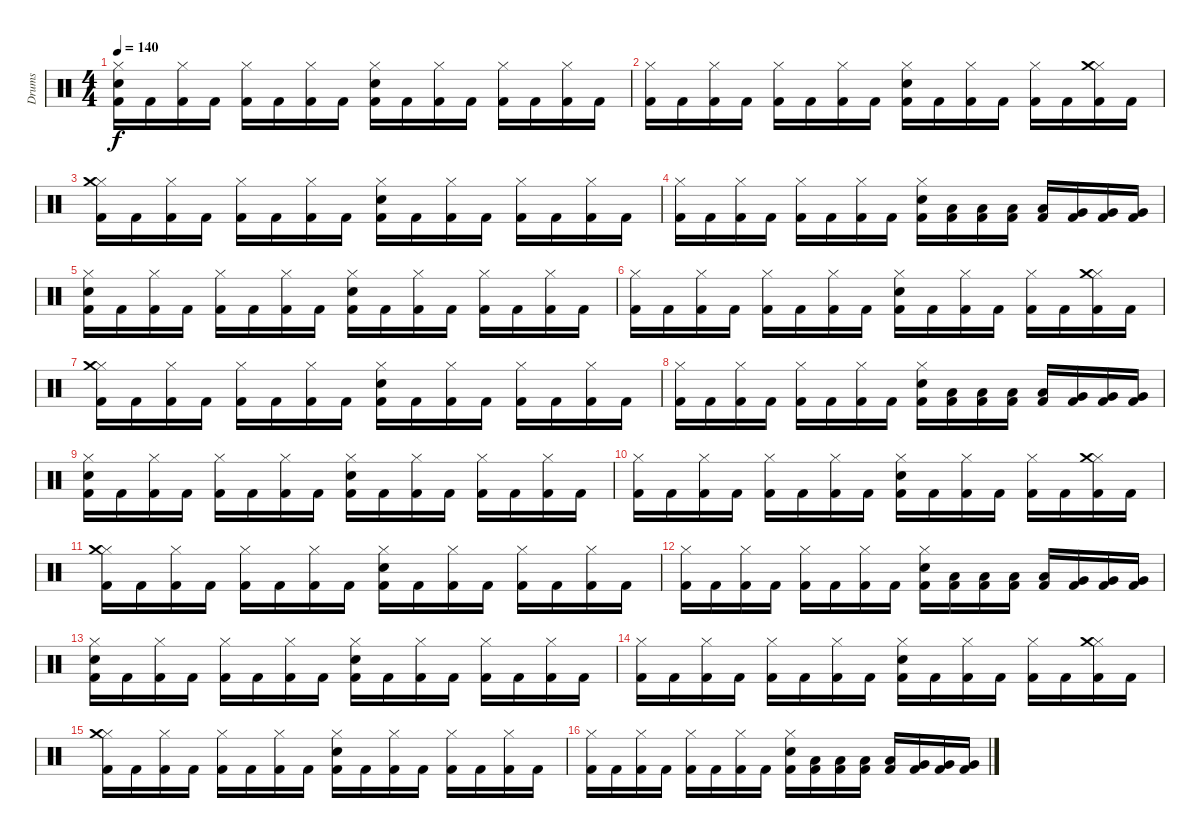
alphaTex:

\track ("Drums" "Drums") {instrument percussion}
\staff {score}
\articulation defaults
\ts (4 4)
\tempo 140
\clef neutral
\ks c
("Hi-Hat (closed)" "Snare (hit) 2" "Kick (hit) 2").16{dy f} "Kick (hit) 2".16 ("Hi-Hat (closed)" "Kick (hit) 2").16 "Kick (hit) 2".16 ("Hi-Hat (closed)" "Kick (hit) 2").16 "Kick (hit) 2".16 ("Hi-Hat (closed)" "Kick (hit) 2").16 "Kick (hit) 2".16 ("Hi-Hat (closed)" "Snare (hit) 2" "Kick (hit) 2").16 "Kick (hit) 2".16 ("Hi-Hat (closed)" "Kick (hit) 2").16 "Kick (hit) 2".16 ("Hi-Hat (closed)" "Kick (hit) 2").16 "Kick (hit) 2".16 ("Hi-Hat (closed)" "Kick (hit) 2").16 "Kick (hit) 2".16 |
("Hi-Hat (closed)" "Kick (hit) 2").16 "Kick (hit) 2".16 ("Hi-Hat (closed)" "Kick (hit) 2").16 "Kick (hit) 2".16 ("Hi-Hat (closed)" "Kick (hit) 2").16 "Kick (hit) 2".16 ("Hi-Hat (closed)" "Kick (hit) 2").16 "Kick (hit) 2".16 ("Hi-Hat (closed)" "Snare (hit) 2" "Kick (hit) 2").16 "Kick (hit) 2".16 ("Hi-Hat (closed)" "Kick (hit) 2").16 "Kick (hit) 2".16 ("Hi-Hat (closed)" "Kick (hit) 2").16 "Kick (hit) 2".16 ("Hi-Hat (closed)" "Crash medium (hit)" "Kick (hit) 2").16 "Kick (hit) 2".16 |
("Hi-Hat (closed)" "Crash medium (hit)" "Kick (hit) 2").16 "Kick (hit) 2".16 ("Hi-Hat (closed)" "Kick (hit) 2").16 "Kick (hit) 2".16 ("Hi-Hat (closed)" "Kick (hit) 2").16 "Kick (hit) 2".16 ("Hi-Hat (closed)" "Kick (hit) 2").16 "Kick (hit) 2".16 ("Hi-Hat (closed)" "Snare (hit) 2" "Kick (hit) 2").16 "Kick (hit) 2".16 ("Hi-Hat (closed)" "Kick (hit) 2").16 "Kick (hit) 2".16 ("Hi-Hat (closed)" "Kick (hit) 2").16 "Kick (hit) 2".16 ("Hi-Hat (closed)" "Kick (hit) 2").16 "Kick (hit) 2".16 |
("Hi-Hat (closed)" "Kick (hit) 2").16 "Kick (hit) 2".16 ("Hi-Hat (closed)" "Kick (hit) 2").16 "Kick (hit) 2".16 ("Hi-Hat (closed)" "Kick (hit) 2").16 "Kick (hit) 2".16 ("Hi-Hat (closed)" "Kick (hit) 2").16 "Kick (hit) 2".16 ("Hi-Hat (closed)" "Snare (hit) 2" "Kick (hit) 2").16 ("Low Floor Tom (hit)" "Kick (hit) 2").16 ("Low Floor Tom (hit)" "Kick (hit) 2").16 ("Low Floor Tom (hit)" "Kick (hit) 2").16 ("Low Floor Tom (hit)" "Kick (hit) 2").16 ("Very Low Tom (hit)" "Kick (hit) 2").16 ("Very Low Tom (hit)" "Kick (hit) 2").16 ("Very Low Tom (hit)" "Kick (hit) 2").16 |
("Hi-Hat (closed)" "Snare (hit) 2" "Kick (hit) 2").16 "Kick (hit) 2".16 ("Hi-Hat (closed)" "Kick (hit) 2").16 "Kick (hit) 2".16 ("Hi-Hat (closed)" "Kick (hit) 2").16 "Kick (hit) 2".16 ("Hi-Hat (closed)" "Kick (hit) 2").16 "Kick (hit) 2".16 ("Hi-Hat (closed)" "Snare (hit) 2" "Kick (hit) 2").16 "Kick (hit) 2".16 ("Hi-Hat (closed)" "Kick (hit) 2").16 "Kick (hit) 2".16 ("Hi-Hat (closed)" "Kick (hit) 2").16 "Kick (hit) 2".16 ("Hi-Hat (closed)" "Kick (hit) 2").16 "Kick (hit) 2".16 |
("Hi-Hat (closed)" "Kick (hit) 2").16 "Kick (hit) 2".16 ("Hi-Hat (closed)" "Kick (hit) 2").16 "Kick (hit) 2".16 ("Hi-Hat (closed)" "Kick (hit) 2").16 "Kick (hit) 2".16 ("Hi-Hat (closed)" "Kick (hit) 2").16 "Kick (hit) 2".16 ("Hi-Hat (closed)" "Snare (hit) 2" "Kick (hit) 2").16 "Kick (hit) 2".16 ("Hi-Hat (closed)" "Kick (hit) 2").16 "Kick (hit) 2".16 ("Hi-Hat (closed)" "Kick (hit) 2").16 "Kick (hit) 2".16 ("Hi-Hat (closed)" "Crash medium (hit)" "Kick (hit) 2").16 "Kick (hit) 2".16 |
("Hi-Hat (closed)" "Crash medium (hit)" "Kick (hit) 2").16 "Kick (hit) 2".16 ("Hi-Hat (closed)" "Kick (hit) 2").16 "Kick (hit) 2".16 ("Hi-Hat (closed)" "Kick (hit) 2").16 "Kick (hit) 2".16 ("Hi-Hat (closed)" "Kick (hit) 2").16 "Kick (hit) 2".16 ("Hi-Hat (closed)" "Snare (hit) 2" "Kick (hit) 2").16 "Kick (hit) 2".16 ("Hi-Hat (closed)" "Kick (hit) 2").16 "Kick (hit) 2".16 ("Hi-Hat (closed)" "Kick (hit) 2").16 "Kick (hit) 2".16 ("Hi-Hat (closed)" "Kick (hit) 2").16 "Kick (hit) 2".16 |
("Hi-Hat (closed)" "Kick (hit) 2").16 "Kick (hit) 2".16 ("Hi-Hat (closed)" "Kick (hit) 2").16 "Kick (hit) 2".16 ("Hi-Hat (closed)" "Kick (hit) 2").16 "Kick (hit) 2".16 ("Hi-Hat (closed)" "Kick (hit) 2").16 "Kick (hit) 2".16 ("Hi-Hat (closed)" "Snare (hit) 2" "Kick (hit) 2").16 ("Low Floor Tom (hit)" "Kick (hit) 2").16 ("Low Floor Tom (hit)" "Kick (hit) 2").16 ("Low Floor Tom (hit)" "Kick (hit) 2").16 ("Low Floor Tom (hit)" "Kick (hit) 2").16 ("Very Low Tom (hit)" "Kick (hit) 2").16 ("Very Low Tom (hit)" "Kick (hit) 2").16 ("Very Low Tom (hit)" "Kick (hit) 2").16 |
("Hi-Hat (closed)" "Snare (hit) 2" "Kick (hit) 2").16 "Kick (hit) 2".16 ("Hi-Hat (closed)" "Kick (hit) 2").16 "Kick (hit) 2".16 ("Hi-Hat (closed)" "Kick (hit) 2").16 "Kick (hit) 2".16 ("Hi-Hat (closed)" "Kick (hit) 2").16 "Kick (hit) 2".16 ("Hi-Hat (closed)" "Snare (hit) 2" "Kick (hit) 2").16 "Kick (hit) 2".16 ("Hi-Hat (closed)" "Kick (hit) 2").16 "Kick (hit) 2".16 ("Hi-Hat (closed)" "Kick (hit) 2").16 "Kick (hit) 2".16 ("Hi-Hat (closed)" "Kick (hit) 2").16 "Kick (hit) 2".16 |
("Hi-Hat (closed)" "Kick (hit) 2").16 "Kick (hit) 2".16 ("Hi-Hat (closed)" "Kick (hit) 2").16 "Kick (hit) 2".16 ("Hi-Hat (closed)" "Kick (hit) 2").16 "Kick (hit) 2".16 ("Hi-Hat (closed)" "Kick (hit) 2").16 "Kick (hit) 2".16 ("Hi-Hat (closed)" "Snare (hit) 2" "Kick (hit) 2").16 "Kick (hit) 2".16 ("Hi-Hat (closed)" "Kick (hit) 2").16 "Kick (hit) 2".16 ("Hi-Hat (closed)" "Kick (hit) 2").16 "Kick (hit) 2".16 ("Hi-Hat (closed)" "Crash medium (hit)" "Kick (hit) 2").16 "Kick (hit) 2".16 |
("Hi-Hat (closed)" "Crash medium (hit)" "Kick (hit) 2").16 "Kick (hit) 2".16 ("Hi-Hat (closed)" "Kick (hit) 2").16 "Kick (hit) 2".16 ("Hi-Hat (closed)" "Kick (hit) 2").16 "Kick (hit) 2".16 ("Hi-Hat (closed)" "Kick (hit) 2").16 "Kick (hit) 2".16 ("Hi-Hat (closed)" "Snare (hit) 2" "Kick (hit) 2").16 "Kick (hit) 2".16 ("Hi-Hat (closed)" "Kick (hit) 2").16 "Kick (hit) 2".16 ("Hi-Hat (closed)" "Kick (hit) 2").16 "Kick (hit) 2".16 ("Hi-Hat (closed)" "Kick (hit) 2").16 "Kick (hit) 2".16 |
("Hi-Hat (closed)" "Kick (hit) 2").16 "Kick (hit) 2".16 ("Hi-Hat (closed)" "Kick (hit) 2").16 "Kick (hit) 2".16 ("Hi-Hat (closed)" "Kick (hit) 2").16 "Kick (hit) 2".16 ("Hi-Hat (closed)" "Kick (hit) 2").16 "Kick (hit) 2".16 ("Hi-Hat (closed)" "Snare (hit) 2" "Kick (hit) 2").16 ("Low Floor Tom (hit)" "Kick (hit) 2").16 ("Low Floor Tom (hit)" "Kick (hit) 2").16 ("Low Floor Tom (hit)" "Kick (hit) 2").16 ("Low Floor Tom (hit)" "Kick (hit) 2").16 ("Very Low Tom (hit)" "Kick (hit) 2").16 ("Very Low Tom (hit)" "Kick (hit) 2").16 ("Very Low Tom (hit)" "Kick (hit) 2").16 |
("Hi-Hat (closed)" "Snare (hit) 2" "Kick (hit) 2").16 "Kick (hit) 2".16 ("Hi-Hat (closed)" "Kick (hit) 2").16 "Kick (hit) 2".16 ("Hi-Hat (closed)" "Kick (hit) 2").16 "Kick (hit) 2".16 ("Hi-Hat (closed)" "Kick (hit) 2").16 "Kick (hit) 2".16 ("Hi-Hat (closed)" "Snare (hit) 2" "Kick (hit) 2").16 "Kick (hit) 2".16 ("Hi-Hat (closed)" "Kick (hit) 2").16 "Kick (hit) 2".16 ("Hi-Hat (closed)" "Kick (hit) 2").16 "Kick (hit) 2".16 ("Hi-Hat (closed)" "Kick (hit) 2").16 "Kick (hit) 2".16 |
("Hi-Hat (closed)" "Kick (hit) 2").16 "Kick (hit) 2".16 ("Hi-Hat (closed)" "Kick (hit) 2").16 "Kick (hit) 2".16 ("Hi-Hat (closed)" "Kick (hit) 2").16 "Kick (hit) 2".16 ("Hi-Hat (closed)" "Kick (hit) 2").16 "Kick (hit) 2".16 ("Hi-Hat (closed)" "Snare (hit) 2" "Kick (hit) 2").16 "Kick (hit) 2".16 ("Hi-Hat (closed)" "Kick (hit) 2").16 "Kick (hit) 2".16 ("Hi-Hat (closed)" "Kick (hit) 2").16 "Kick (hit) 2".16 ("Hi-Hat (closed)" "Crash medium (hit)" "Kick (hit) 2").16 "Kick (hit) 2".16 |
("Hi-Hat (closed)" "Crash medium (hit)" "Kick (hit) 2").16 "Kick (hit) 2".16 ("Hi-Hat (closed)" "Kick (hit) 2").16 "Kick (hit) 2".16 ("Hi-Hat (closed)" "Kick (hit) 2").16 "Kick (hit) 2".16 ("Hi-Hat (closed)" "Kick (hit) 2").16 "Kick (hit) 2".16 ("Hi-Hat (closed)" "Snare (hit) 2" "Kick (hit) 2").16 "Kick (hit) 2".16 ("Hi-Hat (closed)" "Kick (hit) 2").16 "Kick (hit) 2".16 ("Hi-Hat (closed)" "Kick (hit) 2").16 "Kick (hit) 2".16 ("Hi-Hat (closed)" "Kick (hit) 2").16 "Kick (hit) 2".16 |
("Hi-Hat (closed)" "Kick (hit) 2").16 "Kick (hit) 2".16 ("Hi-Hat (closed)" "Kick (hit) 2").16 "Kick (hit) 2".16 ("Hi-Hat (closed)" "Kick (hit) 2").16 "Kick (hit) 2".16 ("Hi-Hat (closed)" "Kick (hit) 2").16 "Kick (hit) 2".16 ("Hi-Hat (closed)" "Snare (hit) 2" "Kick (hit) 2").16 ("Low Floor Tom (hit)" "Kick (hit) 2").16 ("Low Floor Tom (hit)" "Kick (hit) 2").16 ("Low Floor Tom (hit)" "Kick (hit) 2").16 ("Low Floor Tom (hit)" "Kick (hit) 2").16 ("Very Low Tom (hit)" "Kick (hit) 2").16 ("Very Low Tom (hit)" "Kick (hit) 2").16 ("Very Low Tom (hit)" "Kick (hit) 2").16
